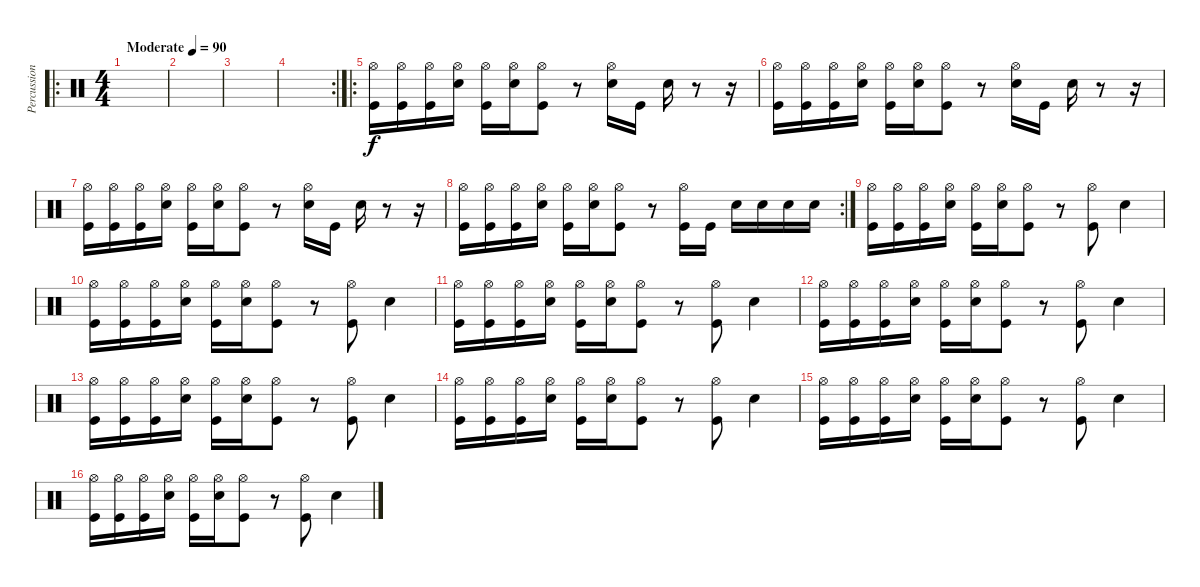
\track ("Percussion courtesy of unknown user" "Percussion") {instrument percussion}
\staff {score}
\articulation defaults
\ro
\ts (4 4)
\tempo (90 "Moderate")
\clef neutral
\ks c
|
|
|
\rc 2
|
\ro
("Hi-Hat (open)" "Kick (hit)").16 ("Hi-Hat (open)" "Kick (hit)").16 ("Hi-Hat (open)" "Kick (hit)").16 ("Hi-Hat (open)" "Snare (hit) 2").16 ("Hi-Hat (open)" "Kick (hit)").16 ("Hi-Hat (open)" "Snare (hit) 2").16 ("Hi-Hat (open)" "Kick (hit)").8 r.8 ("Hi-Hat (open)" "Snare (hit) 2").16 "Kick (hit)".16 "Snare (hit) 2".16 r.8 r.16 |
("Hi-Hat (open)" "Kick (hit)").16 ("Hi-Hat (open)" "Kick (hit)").16 ("Hi-Hat (open)" "Kick (hit)").16 ("Hi-Hat (open)" "Snare (hit) 2").16 ("Hi-Hat (open)" "Kick (hit)").16 ("Hi-Hat (open)" "Snare (hit) 2").16 ("Hi-Hat (open)" "Kick (hit)").8 r.8 ("Hi-Hat (open)" "Snare (hit) 2").16 "Kick (hit)".16 "Snare (hit) 2".16 r.8 r.16 |
("Hi-Hat (open)" "Kick (hit)").16 ("Hi-Hat (open)" "Kick (hit)").16 ("Hi-Hat (open)" "Kick (hit)").16 ("Hi-Hat (open)" "Snare (hit) 2").16 ("Hi-Hat (open)" "Kick (hit)").16 ("Hi-Hat (open)" "Snare (hit) 2").16 ("Hi-Hat (open)" "Kick (hit)").8 r.8 ("Hi-Hat (open)" "Snare (hit) 2").16 "Kick (hit)".16 "Snare (hit) 2".16 r.8 r.16 |
\rc 2
("Hi-Hat (open)" "Kick (hit)").16 ("Hi-Hat (open)" "Kick (hit)").16 ("Hi-Hat (open)" "Kick (hit)").16 ("Hi-Hat (open)" "Snare (hit) 2").16 ("Hi-Hat (open)" "Kick (hit)").16 ("Hi-Hat (open)" "Snare (hit) 2").16 ("Hi-Hat (open)" "Kick (hit)").8 r.8 ("Hi-Hat (open)" "Kick (hit)").16 "Kick (hit)".16 "Snare (hit) 2".16 "Snare (hit) 2".16 "Snare (hit) 2".16 "Snare (hit) 2".16 |
("Hi-Hat (open)" "Kick (hit)").16 ("Hi-Hat (open)" "Kick (hit)").16 ("Hi-Hat (open)" "Kick (hit)").16 ("Hi-Hat (open)" "Snare (hit) 2").16 ("Hi-Hat (open)" "Kick (hit)").16 ("Hi-Hat (open)" "Snare (hit) 2").16 ("Hi-Hat (open)" "Kick (hit)").8 r.8 ("Hi-Hat (open)" "Kick (hit)").8 "Snare (hit) 2".4 |
("Hi-Hat (open)" "Kick (hit)").16 ("Hi-Hat (open)" "Kick (hit)").16 ("Hi-Hat (open)" "Kick (hit)").16 ("Hi-Hat (open)" "Snare (hit) 2").16 ("Hi-Hat (open)" "Kick (hit)").16 ("Hi-Hat (open)" "Snare (hit) 2").16 ("Hi-Hat (open)" "Kick (hit)").8 r.8 ("Hi-Hat (open)" "Kick (hit)").8 "Snare (hit) 2".4 |
("Hi-Hat (open)" "Kick (hit)").16 ("Hi-Hat (open)" "Kick (hit)").16 ("Hi-Hat (open)" "Kick (hit)").16 ("Hi-Hat (open)" "Snare (hit) 2").16 ("Hi-Hat (open)" "Kick (hit)").16 ("Hi-Hat (open)" "Snare (hit) 2").16 ("Hi-Hat (open)" "Kick (hit)").8 r.8 ("Hi-Hat (open)" "Kick (hit)").8 "Snare (hit) 2".4 |
("Hi-Hat (open)" "Kick (hit)").16 ("Hi-Hat (open)" "Kick (hit)").16 ("Hi-Hat (open)" "Kick (hit)").16 ("Hi-Hat (open)" "Snare (hit) 2").16 ("Hi-Hat (open)" "Kick (hit)").16 ("Hi-Hat (open)" "Snare (hit) 2").16 ("Hi-Hat (open)" "Kick (hit)").8 r.8 ("Hi-Hat (open)" "Kick (hit)").8 "Snare (hit) 2".4 |
("Hi-Hat (open)" "Kick (hit)").16 ("Hi-Hat (open)" "Kick (hit)").16 ("Hi-Hat (open)" "Kick (hit)").16 ("Hi-Hat (open)" "Snare (hit) 2").16 ("Hi-Hat (open)" "Kick (hit)").16 ("Hi-Hat (open)" "Snare (hit) 2").16 ("Hi-Hat (open)" "Kick (hit)").8 r.8 ("Hi-Hat (open)" "Kick (hit)").8 "Snare (hit) 2".4 |
("Hi-Hat (open)" "Kick (hit)").16 ("Hi-Hat (open)" "Kick (hit)").16 ("Hi-Hat (open)" "Kick (hit)").16 ("Hi-Hat (open)" "Snare (hit) 2").16 ("Hi-Hat (open)" "Kick (hit)").16 ("Hi-Hat (open)" "Snare (hit) 2").16 ("Hi-Hat (open)" "Kick (hit)").8 r.8 ("Hi-Hat (open)" "Kick (hit)").8 "Snare (hit) 2".4 |
("Hi-Hat (open)" "Kick (hit)").16 ("Hi-Hat (open)" "Kick (hit)").16 ("Hi-Hat (open)" "Kick (hit)").16 ("Hi-Hat (open)" "Snare (hit) 2").16 ("Hi-Hat (open)" "Kick (hit)").16 ("Hi-Hat (open)" "Snare (hit) 2").16 ("Hi-Hat (open)" "Kick (hit)").8 r.8 ("Hi-Hat (open)" "Kick (hit)").8 "Snare (hit) 2".4 |
("Hi-Hat (open)" "Kick (hit)").16 ("Hi-Hat (open)" "Kick (hit)").16 ("Hi-Hat (open)" "Kick (hit)").16 ("Hi-Hat (open)" "Snare (hit) 2").16 ("Hi-Hat (open)" "Kick (hit)").16 ("Hi-Hat (open)" "Snare (hit) 2").16 ("Hi-Hat (open)" "Kick (hit)").8 r.8 ("Hi-Hat (open)" "Kick (hit)").8 "Snare (hit) 2".4
